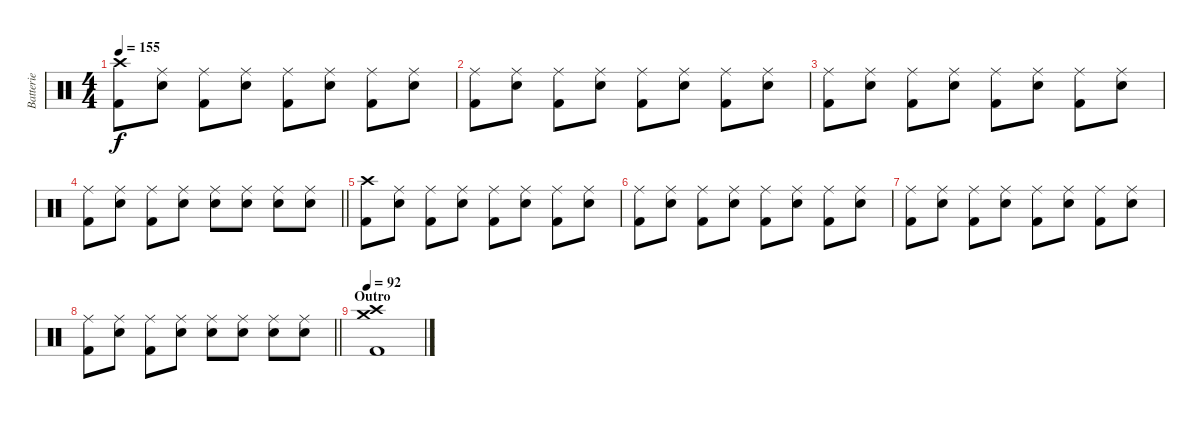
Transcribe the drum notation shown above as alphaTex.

\track ("Batterie" "Batterie") {instrument percussion}
\staff {score}
\articulation defaults
\ts (4 4)
\tempo 155
\clef neutral
\ks c
("Crash high (hit)" "Kick (hit) 2").8{dy f} ("Ride (middle)" "Electric Snare (hit)").8 ("Ride (middle)" "Kick (hit) 2").8 ("Ride (middle)" "Electric Snare (hit)").8 ("Ride (middle)" "Kick (hit) 2").8 ("Ride (middle)" "Electric Snare (hit)").8 ("Ride (middle)" "Kick (hit) 2").8 ("Ride (middle)" "Electric Snare (hit)").8 |
("Ride (middle)" "Kick (hit) 2").8 ("Ride (middle)" "Electric Snare (hit)").8 ("Ride (middle)" "Kick (hit) 2").8 ("Ride (middle)" "Electric Snare (hit)").8 ("Ride (middle)" "Kick (hit) 2").8 ("Ride (middle)" "Electric Snare (hit)").8 ("Ride (middle)" "Kick (hit) 2").8 ("Ride (middle)" "Electric Snare (hit)").8 |
("Ride (middle)" "Kick (hit) 2").8 ("Ride (middle)" "Electric Snare (hit)").8 ("Ride (middle)" "Kick (hit) 2").8 ("Ride (middle)" "Electric Snare (hit)").8 ("Ride (middle)" "Kick (hit) 2").8 ("Ride (middle)" "Electric Snare (hit)").8 ("Ride (middle)" "Kick (hit) 2").8 ("Ride (middle)" "Electric Snare (hit)").8 |
\barLineRight lightlight
("Ride (middle)" "Kick (hit) 2").8 ("Ride (middle)" "Electric Snare (hit)").8 ("Ride (middle)" "Kick (hit) 2").8 ("Ride (middle)" "Electric Snare (hit)").8 ("Ride (middle)" "Electric Snare (hit)").8 ("Ride (middle)" "Electric Snare (hit)").8 ("Ride (middle)" "Electric Snare (hit)").8 ("Ride (middle)" "Electric Snare (hit)").8 |
("Crash high (hit)" "Kick (hit) 2").8 ("Ride (middle)" "Electric Snare (hit)").8 ("Ride (middle)" "Kick (hit) 2").8 ("Ride (middle)" "Electric Snare (hit)").8 ("Ride (middle)" "Kick (hit) 2").8 ("Ride (middle)" "Electric Snare (hit)").8 ("Ride (middle)" "Kick (hit) 2").8 ("Ride (middle)" "Electric Snare (hit)").8 |
("Ride (middle)" "Kick (hit) 2").8 ("Ride (middle)" "Electric Snare (hit)").8 ("Ride (middle)" "Kick (hit) 2").8 ("Ride (middle)" "Electric Snare (hit)").8 ("Ride (middle)" "Kick (hit) 2").8 ("Ride (middle)" "Electric Snare (hit)").8 ("Ride (middle)" "Kick (hit) 2").8 ("Ride (middle)" "Electric Snare (hit)").8 |
("Ride (middle)" "Kick (hit) 2").8 ("Ride (middle)" "Electric Snare (hit)").8 ("Ride (middle)" "Kick (hit) 2").8 ("Ride (middle)" "Electric Snare (hit)").8 ("Ride (middle)" "Kick (hit) 2").8 ("Ride (middle)" "Electric Snare (hit)").8 ("Ride (middle)" "Kick (hit) 2").8 ("Ride (middle)" "Electric Snare (hit)").8 |
\barLineRight lightlight
("Ride (middle)" "Kick (hit) 2").8 ("Ride (middle)" "Electric Snare (hit)").8 ("Ride (middle)" "Kick (hit) 2").8 ("Ride (middle)" "Electric Snare (hit)").8 ("Ride (middle)" "Electric Snare (hit)").8 ("Ride (middle)" "Electric Snare (hit)").8 ("Ride (middle)" "Electric Snare (hit)").8 ("Ride (middle)" "Electric Snare (hit)").8 |
\section ("" "Outro")
\tempo 92
("Crash high (hit)" "Crash medium (hit)" "Kick (hit) 2").1
